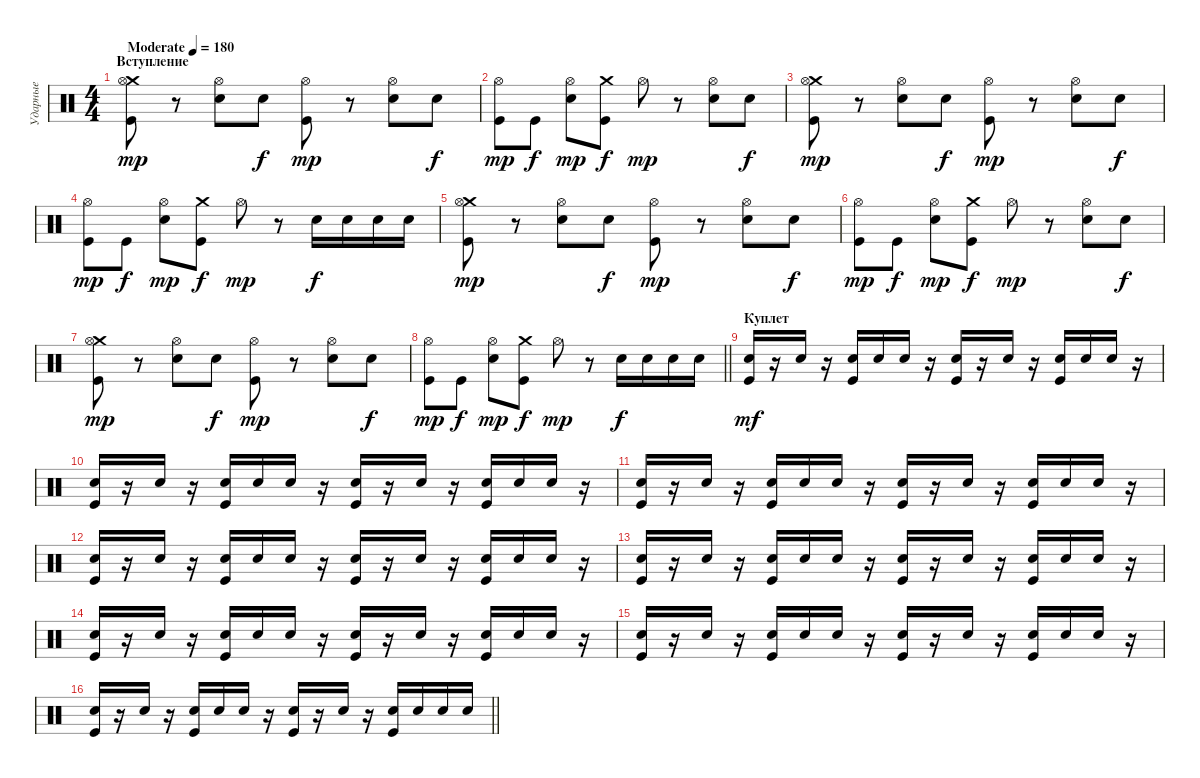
\track ("Ударные" "Ударные") {instrument percussion}
\staff {score}
\articulation defaults
\ts (4 4)
\section ("" "Вступление")
\tempo (180 "Moderate")
\clef neutral
\ks c
("Crash medium (hit)" "Kick (hit)" "Hi-Hat (open)").8{dy mp} r.8 ("Electric Snare (hit)" "Hi-Hat (open)").8 "Electric Snare (hit)".8{dy f} ("Kick (hit)" "Hi-Hat (open)").8{dy mp} r.8 ("Electric Snare (hit)" "Hi-Hat (open)").8 "Electric Snare (hit)".8{dy f} |
("Kick (hit)" "Hi-Hat (open)").8{dy mp} "Kick (hit)".8{dy f} ("Electric Snare (hit)" "Hi-Hat (open)").8{dy mp} ("Crash medium (hit)" "Kick (hit)").8{dy f} "Hi-Hat (open)".8{dy mp} r.8 ("Electric Snare (hit)" "Hi-Hat (open)").8 "Electric Snare (hit)".8{dy f} |
("Crash medium (hit)" "Kick (hit)" "Hi-Hat (open)").8{dy mp} r.8 ("Electric Snare (hit)" "Hi-Hat (open)").8 "Electric Snare (hit)".8{dy f} ("Kick (hit)" "Hi-Hat (open)").8{dy mp} r.8 ("Electric Snare (hit)" "Hi-Hat (open)").8 "Electric Snare (hit)".8{dy f} |
("Kick (hit)" "Hi-Hat (open)").8{dy mp} "Kick (hit)".8{dy f} ("Electric Snare (hit)" "Hi-Hat (open)").8{dy mp} ("Crash medium (hit)" "Kick (hit)").8{dy f} "Hi-Hat (open)".8{dy mp} r.8 "Electric Snare (hit)".16{dy f} "Electric Snare (hit)".16 "Electric Snare (hit)".16 "Electric Snare (hit)".16 |
("Crash medium (hit)" "Kick (hit)" "Hi-Hat (open)").8{dy mp} r.8 ("Electric Snare (hit)" "Hi-Hat (open)").8 "Electric Snare (hit)".8{dy f} ("Kick (hit)" "Hi-Hat (open)").8{dy mp} r.8 ("Electric Snare (hit)" "Hi-Hat (open)").8 "Electric Snare (hit)".8{dy f} |
("Kick (hit)" "Hi-Hat (open)").8{dy mp} "Kick (hit)".8{dy f} ("Electric Snare (hit)" "Hi-Hat (open)").8{dy mp} ("Crash medium (hit)" "Kick (hit)").8{dy f} "Hi-Hat (open)".8{dy mp} r.8 ("Electric Snare (hit)" "Hi-Hat (open)").8 "Electric Snare (hit)".8{dy f} |
("Crash medium (hit)" "Kick (hit)" "Hi-Hat (open)").8{dy mp} r.8 ("Electric Snare (hit)" "Hi-Hat (open)").8 "Electric Snare (hit)".8{dy f} ("Kick (hit)" "Hi-Hat (open)").8{dy mp} r.8 ("Electric Snare (hit)" "Hi-Hat (open)").8 "Electric Snare (hit)".8{dy f} |
\barLineRight lightlight
("Kick (hit)" "Hi-Hat (open)").8{dy mp} "Kick (hit)".8{dy f} ("Electric Snare (hit)" "Hi-Hat (open)").8{dy mp} ("Crash medium (hit)" "Kick (hit)").8{dy f} "Hi-Hat (open)".8{dy mp} r.8 "Electric Snare (hit)".16{dy f} "Electric Snare (hit)".16 "Electric Snare (hit)".16 "Electric Snare (hit)".16 |
\section ("" "Куплет")
("Electric Snare (hit)" "Kick (hit)").16{dy mf} r.16 "Electric Snare (hit)".16 r.16 ("Electric Snare (hit)" "Kick (hit)").16 "Electric Snare (hit)".16 "Electric Snare (hit)".16 r.16 ("Electric Snare (hit)" "Kick (hit)").16 r.16 "Electric Snare (hit)".16 r.16 ("Electric Snare (hit)" "Kick (hit)").16 "Electric Snare (hit)".16 "Electric Snare (hit)".16 r.16 |
("Electric Snare (hit)" "Kick (hit)").16 r.16 "Electric Snare (hit)".16 r.16 ("Electric Snare (hit)" "Kick (hit)").16 "Electric Snare (hit)".16 "Electric Snare (hit)".16 r.16 ("Electric Snare (hit)" "Kick (hit)").16 r.16 "Electric Snare (hit)".16 r.16 ("Electric Snare (hit)" "Kick (hit)").16 "Electric Snare (hit)".16 "Electric Snare (hit)".16 r.16 |
("Electric Snare (hit)" "Kick (hit)").16 r.16 "Electric Snare (hit)".16 r.16 ("Electric Snare (hit)" "Kick (hit)").16 "Electric Snare (hit)".16 "Electric Snare (hit)".16 r.16 ("Electric Snare (hit)" "Kick (hit)").16 r.16 "Electric Snare (hit)".16 r.16 ("Electric Snare (hit)" "Kick (hit)").16 "Electric Snare (hit)".16 "Electric Snare (hit)".16 r.16 |
("Electric Snare (hit)" "Kick (hit)").16 r.16 "Electric Snare (hit)".16 r.16 ("Electric Snare (hit)" "Kick (hit)").16 "Electric Snare (hit)".16 "Electric Snare (hit)".16 r.16 ("Electric Snare (hit)" "Kick (hit)").16 r.16 "Electric Snare (hit)".16 r.16 ("Electric Snare (hit)" "Kick (hit)").16 "Electric Snare (hit)".16 "Electric Snare (hit)".16 r.16 |
("Electric Snare (hit)" "Kick (hit)").16 r.16 "Electric Snare (hit)".16 r.16 ("Electric Snare (hit)" "Kick (hit)").16 "Electric Snare (hit)".16 "Electric Snare (hit)".16 r.16 ("Electric Snare (hit)" "Kick (hit)").16 r.16 "Electric Snare (hit)".16 r.16 ("Electric Snare (hit)" "Kick (hit)").16 "Electric Snare (hit)".16 "Electric Snare (hit)".16 r.16 |
("Electric Snare (hit)" "Kick (hit)").16 r.16 "Electric Snare (hit)".16 r.16 ("Electric Snare (hit)" "Kick (hit)").16 "Electric Snare (hit)".16 "Electric Snare (hit)".16 r.16 ("Electric Snare (hit)" "Kick (hit)").16 r.16 "Electric Snare (hit)".16 r.16 ("Electric Snare (hit)" "Kick (hit)").16 "Electric Snare (hit)".16 "Electric Snare (hit)".16 r.16 |
("Electric Snare (hit)" "Kick (hit)").16 r.16 "Electric Snare (hit)".16 r.16 ("Electric Snare (hit)" "Kick (hit)").16 "Electric Snare (hit)".16 "Electric Snare (hit)".16 r.16 ("Electric Snare (hit)" "Kick (hit)").16 r.16 "Electric Snare (hit)".16 r.16 ("Electric Snare (hit)" "Kick (hit)").16 "Electric Snare (hit)".16 "Electric Snare (hit)".16 r.16 |
\barLineRight lightlight
("Electric Snare (hit)" "Kick (hit)").16 r.16 "Electric Snare (hit)".16 r.16 ("Electric Snare (hit)" "Kick (hit)").16 "Electric Snare (hit)".16 "Electric Snare (hit)".16 r.16 ("Electric Snare (hit)" "Kick (hit)").16 r.16 "Electric Snare (hit)".16 r.16 ("Electric Snare (hit)" "Kick (hit)").16 "Electric Snare (hit)".16 "Electric Snare (hit)".16 "Electric Snare (hit)".16
